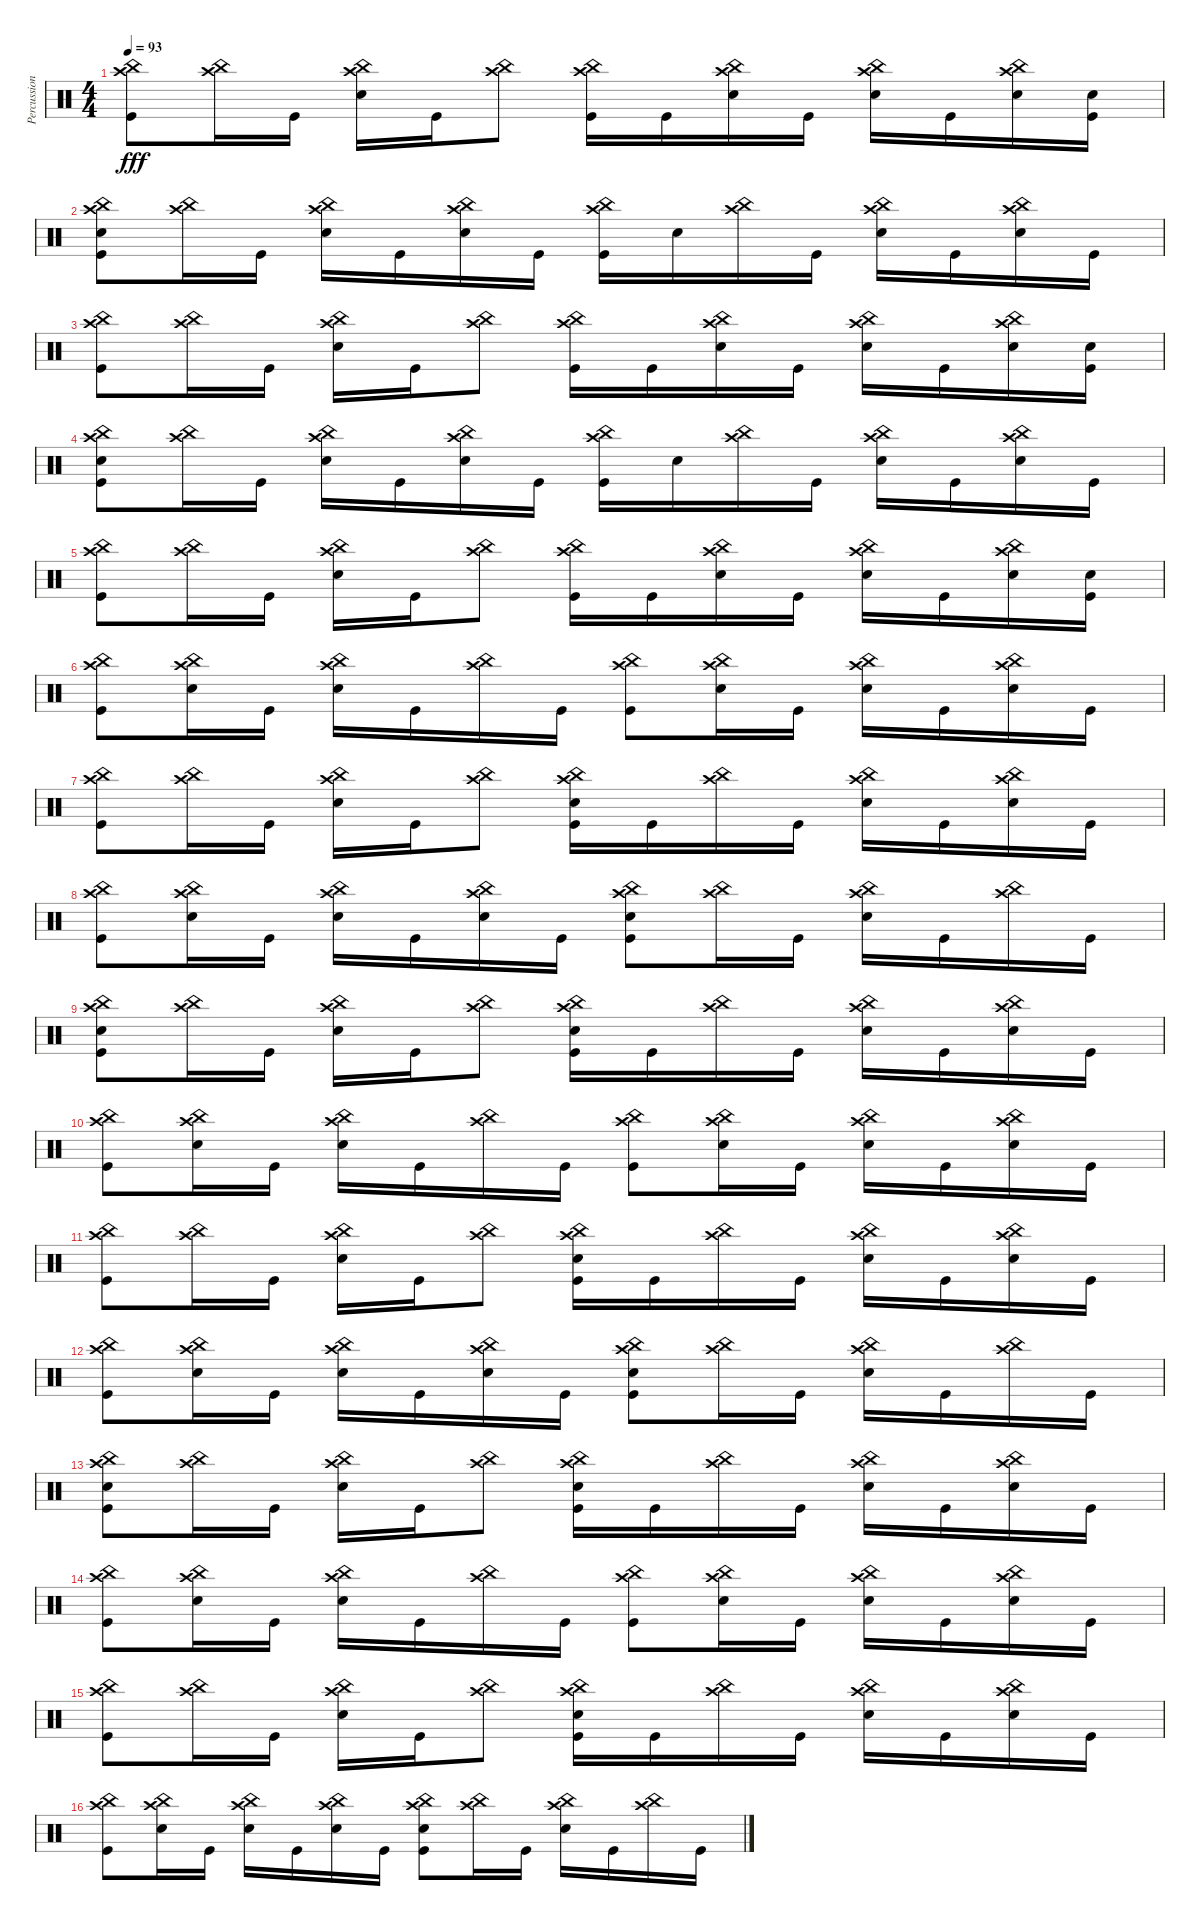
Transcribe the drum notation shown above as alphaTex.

\track ("Percussion" "Percussion") {instrument percussion}
\staff {score}
\articulation defaults
\ts (4 4)
\tempo 93
\clef neutral
\ks c
("China (hit)" "Crash high (hit)" "Kick (hit)").8{dy fff} ("China (hit)" "Crash high (hit)").16 "Kick (hit)".16 ("China (hit)" "Crash high (hit)" "Snare (hit) 2").16 "Kick (hit)".16 ("China (hit)" "Crash high (hit)").8 ("China (hit)" "Crash high (hit)" "Kick (hit)").16 "Kick (hit)".16 ("China (hit)" "Crash high (hit)" "Snare (hit) 2").16 "Kick (hit)".16 ("China (hit)" "Crash high (hit)" "Snare (hit) 2").16 "Kick (hit)".16 ("China (hit)" "Crash high (hit)" "Snare (hit) 2").16 ("Snare (hit) 2" "Kick (hit)").16 |
("China (hit)" "Crash high (hit)" "Snare (hit) 2" "Kick (hit)").8 ("China (hit)" "Crash high (hit)").16 "Kick (hit)".16 ("China (hit)" "Crash high (hit)" "Snare (hit) 2").16 "Kick (hit)".16 ("China (hit)" "Crash high (hit)" "Snare (hit) 2").16 "Kick (hit)".16 ("China (hit)" "Crash high (hit)" "Kick (hit)").16 "Snare (hit) 2".16 ("China (hit)" "Crash high (hit)").16 "Kick (hit)".16 ("China (hit)" "Crash high (hit)" "Snare (hit) 2").16 "Kick (hit)".16 ("China (hit)" "Crash high (hit)" "Snare (hit) 2").16 "Kick (hit)".16 |
("China (hit)" "Crash high (hit)" "Kick (hit)").8 ("China (hit)" "Crash high (hit)").16 "Kick (hit)".16 ("China (hit)" "Crash high (hit)" "Snare (hit) 2").16 "Kick (hit)".16 ("China (hit)" "Crash high (hit)").8 ("China (hit)" "Crash high (hit)" "Kick (hit)").16 "Kick (hit)".16 ("China (hit)" "Crash high (hit)" "Snare (hit) 2").16 "Kick (hit)".16 ("China (hit)" "Crash high (hit)" "Snare (hit) 2").16 "Kick (hit)".16 ("China (hit)" "Crash high (hit)" "Snare (hit) 2").16 ("Snare (hit) 2" "Kick (hit)").16 |
("China (hit)" "Crash high (hit)" "Snare (hit) 2" "Kick (hit)").8 ("China (hit)" "Crash high (hit)").16 "Kick (hit)".16 ("China (hit)" "Crash high (hit)" "Snare (hit) 2").16 "Kick (hit)".16 ("China (hit)" "Crash high (hit)" "Snare (hit) 2").16 "Kick (hit)".16 ("China (hit)" "Crash high (hit)" "Kick (hit)").16 "Snare (hit) 2".16 ("China (hit)" "Crash high (hit)").16 "Kick (hit)".16 ("China (hit)" "Crash high (hit)" "Snare (hit) 2").16 "Kick (hit)".16 ("China (hit)" "Crash high (hit)" "Snare (hit) 2").16 "Kick (hit)".16 |
("China (hit)" "Crash high (hit)" "Kick (hit)").8 ("China (hit)" "Crash high (hit)").16 "Kick (hit)".16 ("China (hit)" "Crash high (hit)" "Snare (hit) 2").16 "Kick (hit)".16 ("China (hit)" "Crash high (hit)").8 ("China (hit)" "Crash high (hit)" "Kick (hit)").16 "Kick (hit)".16 ("China (hit)" "Crash high (hit)" "Snare (hit) 2").16 "Kick (hit)".16 ("China (hit)" "Crash high (hit)" "Snare (hit) 2").16 "Kick (hit)".16 ("China (hit)" "Crash high (hit)" "Snare (hit) 2").16 ("Snare (hit) 2" "Kick (hit)").16 |
("China (hit)" "Crash high (hit)" "Kick (hit)").8 ("China (hit)" "Crash high (hit)" "Snare (hit) 2").16 "Kick (hit)".16 ("China (hit)" "Crash high (hit)" "Snare (hit) 2").16 "Kick (hit)".16 ("China (hit)" "Crash high (hit)").16 "Kick (hit)".16 ("China (hit)" "Crash high (hit)" "Kick (hit)").8{volume 14} ("China (hit)" "Crash high (hit)" "Snare (hit) 2").16 "Kick (hit)".16 ("China (hit)" "Crash high (hit)" "Snare (hit) 2").16 "Kick (hit)".16 ("China (hit)" "Crash high (hit)" "Snare (hit) 2").16 "Kick (hit)".16 |
("China (hit)" "Crash high (hit)" "Kick (hit)").8 ("China (hit)" "Crash high (hit)").16 "Kick (hit)".16 ("China (hit)" "Crash high (hit)" "Snare (hit) 2").16 "Kick (hit)".16 ("China (hit)" "Crash high (hit)").8 ("China (hit)" "Crash high (hit)" "Snare (hit) 2" "Kick (hit)").16 "Kick (hit)".16 ("China (hit)" "Crash high (hit)").16 "Kick (hit)".16 ("China (hit)" "Crash high (hit)" "Snare (hit) 2").16 "Kick (hit)".16 ("China (hit)" "Crash high (hit)" "Snare (hit) 2").16 "Kick (hit)".16 |
("China (hit)" "Crash high (hit)" "Kick (hit)").8{volume 12} ("China (hit)" "Crash high (hit)" "Snare (hit) 2").16 "Kick (hit)".16 ("China (hit)" "Crash high (hit)" "Snare (hit) 2").16 "Kick (hit)".16 ("China (hit)" "Crash high (hit)" "Snare (hit) 2").16 "Kick (hit)".16 ("China (hit)" "Crash high (hit)" "Snare (hit) 2" "Kick (hit)").8 ("China (hit)" "Crash high (hit)").16 "Kick (hit)".16 ("China (hit)" "Crash high (hit)" "Snare (hit) 2").16 "Kick (hit)".16 ("China (hit)" "Crash high (hit)").16 "Kick (hit)".16 |
("China (hit)" "Crash high (hit)" "Snare (hit) 2" "Kick (hit)").8 ("China (hit)" "Crash high (hit)").16 "Kick (hit)".16 ("China (hit)" "Crash high (hit)" "Snare (hit) 2").16 "Kick (hit)".16 ("China (hit)" "Crash high (hit)").8 ("China (hit)" "Crash high (hit)" "Snare (hit) 2" "Kick (hit)").16 "Kick (hit)".16 ("China (hit)" "Crash high (hit)").16 "Kick (hit)".16 ("China (hit)" "Crash high (hit)" "Snare (hit) 2").16 "Kick (hit)".16 ("China (hit)" "Crash high (hit)" "Snare (hit) 2").16 "Kick (hit)".16 |
("China (hit)" "Crash high (hit)" "Kick (hit)").8{volume 11} ("China (hit)" "Crash high (hit)" "Snare (hit) 2").16 "Kick (hit)".16 ("China (hit)" "Crash high (hit)" "Snare (hit) 2").16 "Kick (hit)".16 ("China (hit)" "Crash high (hit)").16 "Kick (hit)".16 ("China (hit)" "Crash high (hit)" "Kick (hit)").8 ("China (hit)" "Crash high (hit)" "Snare (hit) 2").16 "Kick (hit)".16 ("China (hit)" "Crash high (hit)" "Snare (hit) 2").16 "Kick (hit)".16 ("China (hit)" "Crash high (hit)" "Snare (hit) 2").16 "Kick (hit)".16 |
("China (hit)" "Crash high (hit)" "Kick (hit)").8 ("China (hit)" "Crash high (hit)").16 "Kick (hit)".16 ("China (hit)" "Crash high (hit)" "Snare (hit) 2").16 "Kick (hit)".16 ("China (hit)" "Crash high (hit)").8 ("China (hit)" "Crash high (hit)" "Snare (hit) 2" "Kick (hit)").16 "Kick (hit)".16 ("China (hit)" "Crash high (hit)").16 "Kick (hit)".16 ("China (hit)" "Crash high (hit)" "Snare (hit) 2").16 "Kick (hit)".16 ("China (hit)" "Crash high (hit)" "Snare (hit) 2").16 "Kick (hit)".16 |
("China (hit)" "Crash high (hit)" "Kick (hit)").8{volume 10} ("China (hit)" "Crash high (hit)" "Snare (hit) 2").16 "Kick (hit)".16 ("China (hit)" "Crash high (hit)" "Snare (hit) 2").16 "Kick (hit)".16 ("China (hit)" "Crash high (hit)" "Snare (hit) 2").16 "Kick (hit)".16 ("China (hit)" "Crash high (hit)" "Snare (hit) 2" "Kick (hit)").8 ("China (hit)" "Crash high (hit)").16 "Kick (hit)".16 ("China (hit)" "Crash high (hit)" "Snare (hit) 2").16 "Kick (hit)".16 ("China (hit)" "Crash high (hit)").16 "Kick (hit)".16 |
("China (hit)" "Crash high (hit)" "Snare (hit) 2" "Kick (hit)").8 ("China (hit)" "Crash high (hit)").16 "Kick (hit)".16 ("China (hit)" "Crash high (hit)" "Snare (hit) 2").16 "Kick (hit)".16 ("China (hit)" "Crash high (hit)").8 ("China (hit)" "Crash high (hit)" "Snare (hit) 2" "Kick (hit)").16 "Kick (hit)".16 ("China (hit)" "Crash high (hit)").16 "Kick (hit)".16 ("China (hit)" "Crash high (hit)" "Snare (hit) 2").16 "Kick (hit)".16 ("China (hit)" "Crash high (hit)" "Snare (hit) 2").16 "Kick (hit)".16 |
("China (hit)" "Crash high (hit)" "Kick (hit)").8{volume 9} ("China (hit)" "Crash high (hit)" "Snare (hit) 2").16 "Kick (hit)".16 ("China (hit)" "Crash high (hit)" "Snare (hit) 2").16 "Kick (hit)".16 ("China (hit)" "Crash high (hit)").16 "Kick (hit)".16 ("China (hit)" "Crash high (hit)" "Kick (hit)").8 ("China (hit)" "Crash high (hit)" "Snare (hit) 2").16 "Kick (hit)".16 ("China (hit)" "Crash high (hit)" "Snare (hit) 2").16 "Kick (hit)".16 ("China (hit)" "Crash high (hit)" "Snare (hit) 2").16 "Kick (hit)".16 |
("China (hit)" "Crash high (hit)" "Kick (hit)").8 ("China (hit)" "Crash high (hit)").16 "Kick (hit)".16 ("China (hit)" "Crash high (hit)" "Snare (hit) 2").16 "Kick (hit)".16 ("China (hit)" "Crash high (hit)").8 ("China (hit)" "Crash high (hit)" "Snare (hit) 2" "Kick (hit)").16 "Kick (hit)".16 ("China (hit)" "Crash high (hit)").16 "Kick (hit)".16 ("China (hit)" "Crash high (hit)" "Snare (hit) 2").16 "Kick (hit)".16 ("China (hit)" "Crash high (hit)" "Snare (hit) 2").16 "Kick (hit)".16 |
("China (hit)" "Crash high (hit)" "Kick (hit)").8{volume 8} ("China (hit)" "Crash high (hit)" "Snare (hit) 2").16 "Kick (hit)".16 ("China (hit)" "Crash high (hit)" "Snare (hit) 2").16 "Kick (hit)".16 ("China (hit)" "Crash high (hit)" "Snare (hit) 2").16 "Kick (hit)".16 ("China (hit)" "Crash high (hit)" "Snare (hit) 2" "Kick (hit)").8 ("China (hit)" "Crash high (hit)").16 "Kick (hit)".16 ("China (hit)" "Crash high (hit)" "Snare (hit) 2").16 "Kick (hit)".16 ("China (hit)" "Crash high (hit)").16 "Kick (hit)".16
